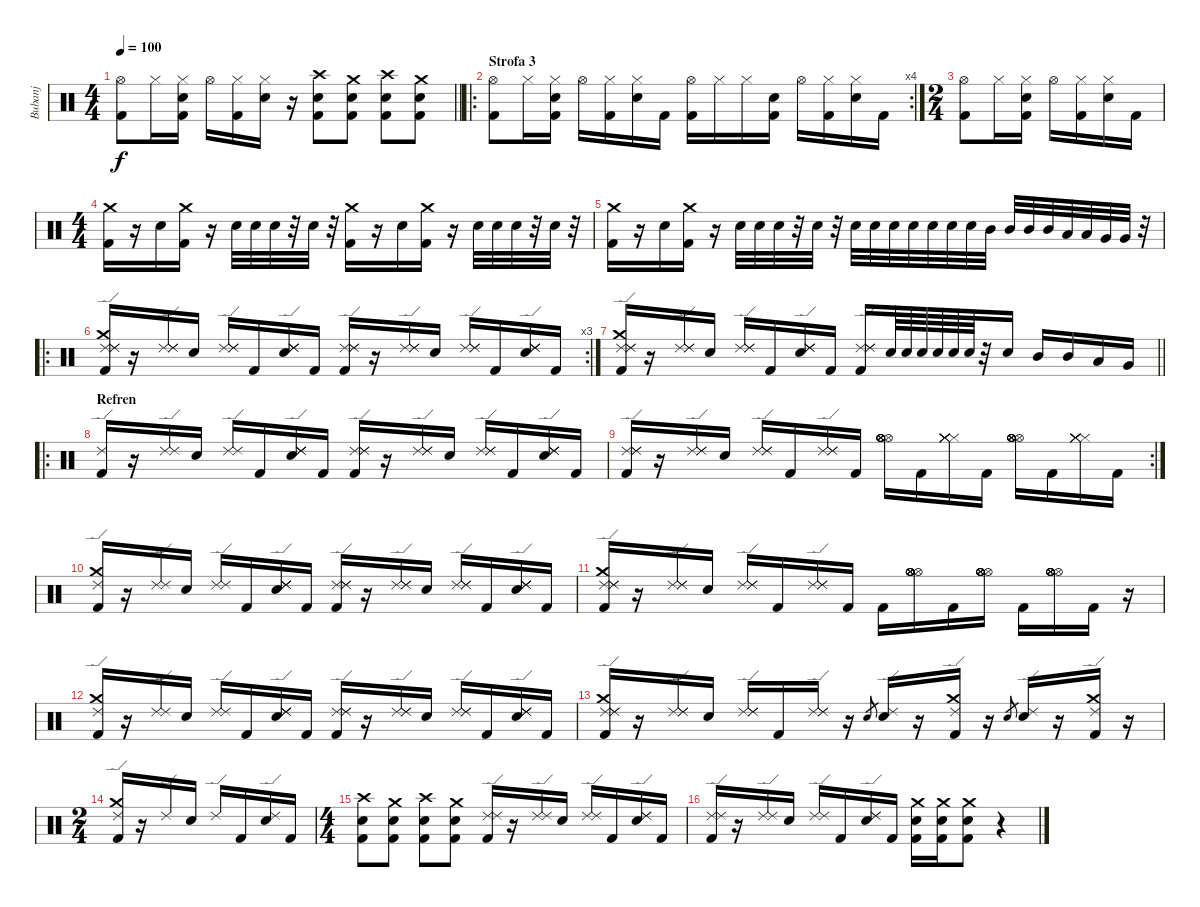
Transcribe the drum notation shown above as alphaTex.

\track ("Bubanj" "Bubanj") {instrument percussion}
\staff {score}
\articulation defaults
\ts (4 4)
\tempo 100
\clef neutral
\barLineRight lightlight
\ks c
("Hi-Hat (open)" "Kick (hit) 2").8{dy f} "Hi-Hat (closed)".16 ("Hi-Hat (closed)" "Snare (hit) 2" "Kick (hit) 2").16 "Hi-Hat (open)".16 ("Hi-Hat (closed)" "Kick (hit) 2").16 ("Hi-Hat (closed)" "Snare (hit) 2").16 r.16 ("Kick (hit) 2" "Snare (hit) 2" "Crash high (hit)").8 ("Kick (hit) 2" "Snare (hit) 2" "Crash medium (hit)").8 ("Kick (hit) 2" "Snare (hit) 2" "Crash high (hit)").8 ("Kick (hit) 2" "Snare (hit) 2" "Crash medium (hit)").8 |
\ro
\rc 4
\section ("" "Strofa 3")
("Hi-Hat (open)" "Kick (hit) 2").8 "Hi-Hat (closed)".16 ("Hi-Hat (closed)" "Snare (hit) 2" "Kick (hit) 2").16 "Hi-Hat (open)".16 ("Hi-Hat (closed)" "Kick (hit) 2").16 ("Hi-Hat (closed)" "Snare (hit) 2").16 "Kick (hit) 2".16 ("Hi-Hat (open)" "Kick (hit) 2").16 "Hi-Hat (closed)".16 "Hi-Hat (closed)".16 ("Snare (hit) 2" "Kick (hit) 2").16 "Hi-Hat (open)".16 ("Hi-Hat (closed)" "Kick (hit) 2").16 ("Hi-Hat (closed)" "Snare (hit) 2").16 "Kick (hit) 2".16 |
\ts (2 4)
("Hi-Hat (open)" "Kick (hit) 2").8 "Hi-Hat (closed)".16 ("Hi-Hat (closed)" "Snare (hit) 2" "Kick (hit) 2").16 "Hi-Hat (open)".16 ("Hi-Hat (closed)" "Kick (hit) 2").16 ("Hi-Hat (closed)" "Snare (hit) 2").16 "Kick (hit) 2".16 |
\ts (4 4)
("Kick (hit) 2" "Crash medium (hit)").16 r.16 "Snare (hit) 2".16 ("Kick (hit) 2" "Crash medium (hit)").16 r.16 "Snare (hit) 2".32 "Snare (hit) 2".32 "Snare (hit) 2".32 r.32 "Snare (hit) 2".32 r.32 ("Kick (hit) 2" "Crash medium (hit)").16 r.16 "Snare (hit) 2".16 ("Kick (hit) 2" "Crash medium (hit)").16 r.16 "Snare (hit) 2".32 "Snare (hit) 2".32 "Snare (hit) 2".32 r.32 "Snare (hit) 2".32 r.32 |
("Kick (hit) 2" "Crash medium (hit)").16 r.16 "Snare (hit) 2".16 ("Kick (hit) 2" "Crash medium (hit)").16 r.16 "Snare (hit) 2".32 "Snare (hit) 2".32 "Snare (hit) 2".32 r.32 "Snare (hit) 2".32 r.32 "Snare (hit) 2".32 "Snare (hit) 2".32 "Snare (hit) 2".32 "Snare (hit) 2".32 "Snare (hit) 2".32 "Snare (hit) 2".32 "Snare (hit) 2".32 "Mid Tom (hit)".32 "Mid Tom (hit)".32 "Mid Tom (hit)".32 "Mid Tom (hit)".32 "Low Tom (hit)".32 "Low Tom (hit)".32 "Very Low Tom (hit)".32 "Very Low Tom (hit)".32 r.32 |
\ro
\rc 3
("Crash medium (hit)" "Kick (hit) 2" "Ride (edge) 2" "Ride (edge) 2" "Ride (edge) 2").16 r.16 ("Ride (edge) 2" "Ride (edge) 2" "Ride (edge) 2").16 "Snare (hit) 2".16 ("Ride (edge) 2" "Ride (edge) 2" "Ride (edge) 2").16 "Kick (hit) 2".16 ("Snare (hit) 2" "Ride (edge) 2" "Ride (edge) 2" "Ride (edge) 2").16 "Kick (hit) 2".16 ("Kick (hit) 2" "Ride (edge) 2" "Ride (edge) 2" "Ride (edge) 2").16 r.16 ("Ride (edge) 2" "Ride (edge) 2" "Ride (edge) 2").16 "Snare (hit) 2".16 ("Ride (edge) 2" "Ride (edge) 2" "Ride (edge) 2").16 "Kick (hit) 2".16 ("Snare (hit) 2" "Ride (edge) 2" "Ride (edge) 2" "Ride (edge) 2").16 "Kick (hit) 2".16 |
\barLineRight lightlight
("Crash medium (hit)" "Kick (hit) 2" "Ride (edge) 2" "Ride (edge) 2" "Ride (edge) 2").16 r.16 ("Ride (edge) 2" "Ride (edge) 2" "Ride (edge) 2").16 "Snare (hit) 2".16 ("Ride (edge) 2" "Ride (edge) 2" "Ride (edge) 2").16 "Kick (hit) 2".16 ("Snare (hit) 2" "Ride (edge) 2" "Ride (edge) 2" "Ride (edge) 2").16 "Kick (hit) 2".16 ("Kick (hit) 2" "Ride (edge) 2" "Ride (edge) 2" "Ride (edge) 2").16 "Snare (hit) 2".64 "Snare (hit) 2".64 "Snare (hit) 2".64 "Snare (hit) 2".64 "Snare (hit) 2".64 "Snare (hit) 2".64 r.32 "Snare (hit) 2".16 "Mid Tom (hit)".16 "Mid Tom (hit)".16 "Low Tom (hit)".16 "Very Low Tom (hit)".16 |
\ro
\section ("" "Refren")
("Kick (hit) 2" "Ride (edge) 2").16 r.16 ("Ride (edge) 2" "Ride (edge) 2").16 "Snare (hit) 2".16 ("Ride (edge) 2" "Ride (edge) 2").16 "Kick (hit) 2".16 ("Snare (hit) 2" "Ride (edge) 2" "Ride (edge) 2" "Ride (edge) 2").16 "Kick (hit) 2".16 ("Kick (hit) 2" "Ride (edge) 2" "Ride (edge) 2" "Ride (edge) 2").16 r.16 ("Ride (edge) 2" "Ride (edge) 2" "Ride (edge) 2").16 "Snare (hit) 2".16 ("Ride (edge) 2" "Ride (edge) 2" "Ride (edge) 2").16 "Kick (hit) 2".16 ("Snare (hit) 2" "Ride (edge) 2" "Ride (edge) 2" "Ride (edge) 2").16 "Kick (hit) 2".16 |
\rc 2
("Kick (hit) 2" "Ride (edge) 2" "Ride (edge) 2" "Ride (edge) 2").16 r.16 ("Ride (edge) 2" "Ride (edge) 2" "Ride (edge) 2").16 "Snare (hit) 2".16 ("Ride (edge) 2" "Ride (edge) 2" "Ride (edge) 2").16 "Kick (hit) 2".16 ("Ride (edge) 2" "Ride (edge) 2" "Ride (edge) 2").16 "Kick (hit) 2".16 ("Hi-Hat (open)" "Hi-Hat (open)" "Hi-Hat (open)" "Hi-Hat (open)" "Hi-Hat (open)" "Hi-Hat (open)").16 "Kick (hit) 2".16 ("Hi-Hat (closed)" "Hi-Hat (closed)" "Hi-Hat (closed)" "Hi-Hat (closed)" "Hi-Hat (closed)" "Hi-Hat (closed)").16 "Kick (hit) 2".16 ("Hi-Hat (open)" "Hi-Hat (open)" "Hi-Hat (open)" "Hi-Hat (open)" "Hi-Hat (open)" "Hi-Hat (open)").16 "Kick (hit) 2".16 ("Hi-Hat (closed)" "Hi-Hat (closed)" "Hi-Hat (closed)" "Hi-Hat (closed)" "Hi-Hat (closed)" "Hi-Hat (closed)").16 "Kick (hit) 2".16 |
("Crash medium (hit)" "Kick (hit) 2" "Ride (edge) 2").16 r.16 ("Ride (edge) 2" "Ride (edge) 2").16 "Snare (hit) 2".16 ("Ride (edge) 2" "Ride (edge) 2").16 "Kick (hit) 2".16 ("Snare (hit) 2" "Ride (edge) 2" "Ride (edge) 2" "Ride (edge) 2").16 "Kick (hit) 2".16 ("Kick (hit) 2" "Ride (edge) 2" "Ride (edge) 2" "Ride (edge) 2").16 r.16 ("Ride (edge) 2" "Ride (edge) 2" "Ride (edge) 2").16 "Snare (hit) 2".16 ("Ride (edge) 2" "Ride (edge) 2" "Ride (edge) 2").16 "Kick (hit) 2".16 ("Snare (hit) 2" "Ride (edge) 2" "Ride (edge) 2" "Ride (edge) 2").16 "Kick (hit) 2".16 |
("Crash medium (hit)" "Kick (hit) 2" "Ride (edge) 2" "Ride (edge) 2" "Ride (edge) 2").16 r.16 ("Ride (edge) 2" "Ride (edge) 2" "Ride (edge) 2").16 "Snare (hit) 2".16 ("Ride (edge) 2" "Ride (edge) 2" "Ride (edge) 2").16 "Kick (hit) 2".16 ("Ride (edge) 2" "Ride (edge) 2" "Ride (edge) 2").16 "Kick (hit) 2".16 "Kick (hit) 2".16 ("Hi-Hat (open)" "Hi-Hat (open)" "Hi-Hat (open)" "Hi-Hat (open)" "Hi-Hat (open)" "Hi-Hat (open)").16 "Kick (hit) 2".16 ("Hi-Hat (open)" "Hi-Hat (open)" "Hi-Hat (open)" "Hi-Hat (open)" "Hi-Hat (open)" "Hi-Hat (open)").16 "Kick (hit) 2".16 ("Hi-Hat (open)" "Hi-Hat (open)" "Hi-Hat (open)" "Hi-Hat (open)" "Hi-Hat (open)" "Hi-Hat (open)").16 "Kick (hit) 2".16 r.16 |
("Crash medium (hit)" "Kick (hit) 2" "Ride (edge) 2").16 r.16 ("Ride (edge) 2" "Ride (edge) 2").16 "Snare (hit) 2".16 ("Ride (edge) 2" "Ride (edge) 2").16 "Kick (hit) 2".16 ("Snare (hit) 2" "Ride (edge) 2" "Ride (edge) 2" "Ride (edge) 2").16 "Kick (hit) 2".16 ("Kick (hit) 2" "Ride (edge) 2" "Ride (edge) 2" "Ride (edge) 2").16 r.16 ("Ride (edge) 2" "Ride (edge) 2" "Ride (edge) 2").16 "Snare (hit) 2".16 ("Ride (edge) 2" "Ride (edge) 2" "Ride (edge) 2").16 "Kick (hit) 2".16 ("Snare (hit) 2" "Ride (edge) 2" "Ride (edge) 2" "Ride (edge) 2").16 "Kick (hit) 2".16 |
("Crash medium (hit)" "Kick (hit) 2" "Ride (edge) 2" "Ride (edge) 2" "Ride (edge) 2").16 r.16 ("Ride (edge) 2" "Ride (edge) 2" "Ride (edge) 2").16 "Snare (hit) 2".16 ("Ride (edge) 2" "Ride (edge) 2" "Ride (edge) 2").16 "Kick (hit) 2".16 ("Ride (edge) 2" "Ride (edge) 2" "Ride (edge) 2").16 r.16 "Snare (hit) 2".8{gr} ("Snare (hit) 2" "Ride (edge) 2").16 r.16 ("Crash medium (hit)" "Kick (hit) 2" "Ride (edge) 2").16 r.16 "Snare (hit) 2".8{gr} ("Snare (hit) 2" "Ride (edge) 2").16 r.16 ("Crash medium (hit)" "Kick (hit) 2" "Ride (edge) 2").16 r.16 |
\ts (2 4)
("Crash medium (hit)" "Kick (hit) 2" "Ride (edge) 2").16 r.16 "Ride (edge) 2".16 "Snare (hit) 2".16 "Ride (edge) 2".16 "Kick (hit) 2".16 ("Snare (hit) 2" "Ride (edge) 2").16 "Kick (hit) 2".16 |
\ts (4 4)
("Kick (hit) 2" "Snare (hit) 2" "Crash high (hit)").8 ("Kick (hit) 2" "Snare (hit) 2" "Crash medium (hit)").8 ("Kick (hit) 2" "Snare (hit) 2" "Crash high (hit)").8 ("Kick (hit) 2" "Snare (hit) 2" "Crash medium (hit)").8 ("Kick (hit) 2" "Ride (edge) 2" "Ride (edge) 2").16 r.16 ("Ride (edge) 2" "Ride (edge) 2").16 "Snare (hit) 2".16 ("Ride (edge) 2" "Ride (edge) 2").16 "Kick (hit) 2".16 ("Snare (hit) 2" "Ride (edge) 2" "Ride (edge) 2").16 "Kick (hit) 2".16 |
("Kick (hit) 2" "Ride (edge) 2" "Ride (edge) 2").16 r.16 ("Ride (edge) 2" "Ride (edge) 2").16 "Snare (hit) 2".16 ("Ride (edge) 2" "Ride (edge) 2").16 "Kick (hit) 2".16 ("Snare (hit) 2" "Ride (edge) 2" "Ride (edge) 2").16 "Kick (hit) 2".16 ("Kick (hit) 2" "Snare (hit) 2" "Crash medium (hit)").16 ("Kick (hit) 2" "Snare (hit) 2" "Crash medium (hit)").16 ("Kick (hit) 2" "Snare (hit) 2" "Crash medium (hit)").8 r.4
